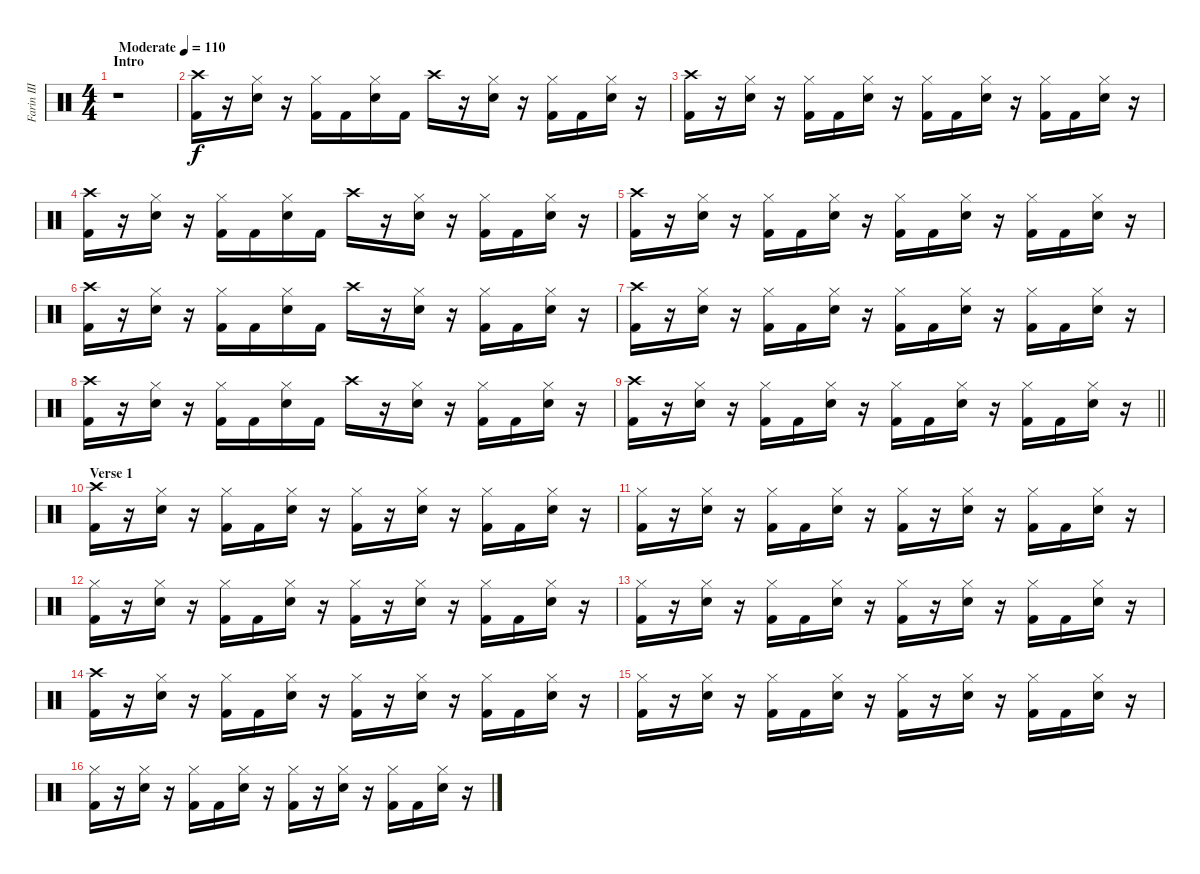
\track ("Farin III" "Farin III") {instrument percussion}
\staff {score}
\articulation defaults
\ts (4 4)
\section ("" "Intro")
\tempo (110 "Moderate")
\clef neutral
\ks c
r.1{dy f} |
("Crash high (hit)" "Kick (hit) 2").16 r.16 ("Hi-Hat (closed)" "Snare (hit) 2").16 r.16 ("Hi-Hat (closed)" "Kick (hit) 2").16 "Kick (hit) 2".16 ("Hi-Hat (closed)" "Snare (hit) 2").16 "Kick (hit) 2".16 "Crash high (hit)".16 r.16 ("Hi-Hat (closed)" "Snare (hit) 2").16 r.16 ("Hi-Hat (closed)" "Kick (hit) 2").16 "Kick (hit) 2".16 ("Hi-Hat (closed)" "Snare (hit) 2").16 r.16 |
("Crash high (hit)" "Kick (hit) 2").16 r.16 ("Hi-Hat (closed)" "Snare (hit) 2").16 r.16 ("Hi-Hat (closed)" "Kick (hit) 2").16 "Kick (hit) 2".16 ("Hi-Hat (closed)" "Snare (hit) 2").16 r.16 ("Hi-Hat (closed)" "Kick (hit) 2").16 "Kick (hit) 2".16 ("Hi-Hat (closed)" "Snare (hit) 2").16 r.16 ("Hi-Hat (closed)" "Kick (hit) 2").16 "Kick (hit) 2".16 ("Hi-Hat (closed)" "Snare (hit) 2").16 r.16 |
("Crash high (hit)" "Kick (hit) 2").16 r.16 ("Hi-Hat (closed)" "Snare (hit) 2").16 r.16 ("Hi-Hat (closed)" "Kick (hit) 2").16 "Kick (hit) 2".16 ("Hi-Hat (closed)" "Snare (hit) 2").16 "Kick (hit) 2".16 "Crash high (hit)".16 r.16 ("Hi-Hat (closed)" "Snare (hit) 2").16 r.16 ("Hi-Hat (closed)" "Kick (hit) 2").16 "Kick (hit) 2".16 ("Hi-Hat (closed)" "Snare (hit) 2").16 r.16 |
("Crash high (hit)" "Kick (hit) 2").16 r.16 ("Hi-Hat (closed)" "Snare (hit) 2").16 r.16 ("Hi-Hat (closed)" "Kick (hit) 2").16 "Kick (hit) 2".16 ("Hi-Hat (closed)" "Snare (hit) 2").16 r.16 ("Hi-Hat (closed)" "Kick (hit) 2").16 "Kick (hit) 2".16 ("Hi-Hat (closed)" "Snare (hit) 2").16 r.16 ("Hi-Hat (closed)" "Kick (hit) 2").16 "Kick (hit) 2".16 ("Hi-Hat (closed)" "Snare (hit) 2").16 r.16 |
("Crash high (hit)" "Kick (hit) 2").16 r.16 ("Hi-Hat (closed)" "Snare (hit) 2").16 r.16 ("Hi-Hat (closed)" "Kick (hit) 2").16 "Kick (hit) 2".16 ("Hi-Hat (closed)" "Snare (hit) 2").16 "Kick (hit) 2".16 "Crash high (hit)".16 r.16 ("Hi-Hat (closed)" "Snare (hit) 2").16 r.16 ("Hi-Hat (closed)" "Kick (hit) 2").16 "Kick (hit) 2".16 ("Hi-Hat (closed)" "Snare (hit) 2").16 r.16 |
("Crash high (hit)" "Kick (hit) 2").16 r.16 ("Hi-Hat (closed)" "Snare (hit) 2").16 r.16 ("Hi-Hat (closed)" "Kick (hit) 2").16 "Kick (hit) 2".16 ("Hi-Hat (closed)" "Snare (hit) 2").16 r.16 ("Hi-Hat (closed)" "Kick (hit) 2").16 "Kick (hit) 2".16 ("Hi-Hat (closed)" "Snare (hit) 2").16 r.16 ("Hi-Hat (closed)" "Kick (hit) 2").16 "Kick (hit) 2".16 ("Hi-Hat (closed)" "Snare (hit) 2").16 r.16 |
("Crash high (hit)" "Kick (hit) 2").16 r.16 ("Hi-Hat (closed)" "Snare (hit) 2").16 r.16 ("Hi-Hat (closed)" "Kick (hit) 2").16 "Kick (hit) 2".16 ("Hi-Hat (closed)" "Snare (hit) 2").16 "Kick (hit) 2".16 "Crash high (hit)".16 r.16 ("Hi-Hat (closed)" "Snare (hit) 2").16 r.16 ("Hi-Hat (closed)" "Kick (hit) 2").16 "Kick (hit) 2".16 ("Hi-Hat (closed)" "Snare (hit) 2").16 r.16 |
\barLineRight lightlight
("Crash high (hit)" "Kick (hit) 2").16 r.16 ("Hi-Hat (closed)" "Snare (hit) 2").16 r.16 ("Hi-Hat (closed)" "Kick (hit) 2").16 "Kick (hit) 2".16 ("Hi-Hat (closed)" "Snare (hit) 2").16 r.16 ("Hi-Hat (closed)" "Kick (hit) 2").16 "Kick (hit) 2".16 ("Hi-Hat (closed)" "Snare (hit) 2").16 r.16 ("Hi-Hat (closed)" "Kick (hit) 2").16 "Kick (hit) 2".16 ("Hi-Hat (closed)" "Snare (hit) 2").16 r.16 |
\section ("" "Verse 1")
("Crash high (hit)" "Kick (hit) 2").16 r.16 ("Hi-Hat (closed)" "Snare (hit) 2").16 r.16 ("Hi-Hat (closed)" "Kick (hit) 2").16 "Kick (hit) 2".16 ("Hi-Hat (closed)" "Snare (hit) 2").16 r.16 ("Hi-Hat (closed)" "Kick (hit) 2").16 r.16 ("Hi-Hat (closed)" "Snare (hit) 2").16 r.16 ("Hi-Hat (closed)" "Kick (hit) 2").16 "Kick (hit) 2".16 ("Hi-Hat (closed)" "Snare (hit) 2").16 r.16 |
("Hi-Hat (closed)" "Kick (hit) 2").16 r.16 ("Hi-Hat (closed)" "Snare (hit) 2").16 r.16 ("Hi-Hat (closed)" "Kick (hit) 2").16 "Kick (hit) 2".16 ("Hi-Hat (closed)" "Snare (hit) 2").16 r.16 ("Hi-Hat (closed)" "Kick (hit) 2").16 r.16 ("Hi-Hat (closed)" "Snare (hit) 2").16 r.16 ("Hi-Hat (closed)" "Kick (hit) 2").16 "Kick (hit) 2".16 ("Hi-Hat (closed)" "Snare (hit) 2").16 r.16 |
("Hi-Hat (closed)" "Kick (hit) 2").16 r.16 ("Hi-Hat (closed)" "Snare (hit) 2").16 r.16 ("Hi-Hat (closed)" "Kick (hit) 2").16 "Kick (hit) 2".16 ("Hi-Hat (closed)" "Snare (hit) 2").16 r.16 ("Hi-Hat (closed)" "Kick (hit) 2").16 r.16 ("Hi-Hat (closed)" "Snare (hit) 2").16 r.16 ("Hi-Hat (closed)" "Kick (hit) 2").16 "Kick (hit) 2".16 ("Hi-Hat (closed)" "Snare (hit) 2").16 r.16 |
("Hi-Hat (closed)" "Kick (hit) 2").16 r.16 ("Hi-Hat (closed)" "Snare (hit) 2").16 r.16 ("Hi-Hat (closed)" "Kick (hit) 2").16 "Kick (hit) 2".16 ("Hi-Hat (closed)" "Snare (hit) 2").16 r.16 ("Hi-Hat (closed)" "Kick (hit) 2").16 r.16 ("Hi-Hat (closed)" "Snare (hit) 2").16 r.16 ("Hi-Hat (closed)" "Kick (hit) 2").16 "Kick (hit) 2".16 ("Hi-Hat (closed)" "Snare (hit) 2").16 r.16 |
("Crash high (hit)" "Kick (hit) 2").16 r.16 ("Hi-Hat (closed)" "Snare (hit) 2").16 r.16 ("Hi-Hat (closed)" "Kick (hit) 2").16 "Kick (hit) 2".16 ("Hi-Hat (closed)" "Snare (hit) 2").16 r.16 ("Hi-Hat (closed)" "Kick (hit) 2").16 r.16 ("Hi-Hat (closed)" "Snare (hit) 2").16 r.16 ("Hi-Hat (closed)" "Kick (hit) 2").16 "Kick (hit) 2".16 ("Hi-Hat (closed)" "Snare (hit) 2").16 r.16 |
("Hi-Hat (closed)" "Kick (hit) 2").16 r.16 ("Hi-Hat (closed)" "Snare (hit) 2").16 r.16 ("Hi-Hat (closed)" "Kick (hit) 2").16 "Kick (hit) 2".16 ("Hi-Hat (closed)" "Snare (hit) 2").16 r.16 ("Hi-Hat (closed)" "Kick (hit) 2").16 r.16 ("Hi-Hat (closed)" "Snare (hit) 2").16 r.16 ("Hi-Hat (closed)" "Kick (hit) 2").16 "Kick (hit) 2".16 ("Hi-Hat (closed)" "Snare (hit) 2").16 r.16 |
("Hi-Hat (closed)" "Kick (hit) 2").16 r.16 ("Hi-Hat (closed)" "Snare (hit) 2").16 r.16 ("Hi-Hat (closed)" "Kick (hit) 2").16 "Kick (hit) 2".16 ("Hi-Hat (closed)" "Snare (hit) 2").16 r.16 ("Hi-Hat (closed)" "Kick (hit) 2").16 r.16 ("Hi-Hat (closed)" "Snare (hit) 2").16 r.16 ("Hi-Hat (closed)" "Kick (hit) 2").16 "Kick (hit) 2".16 ("Hi-Hat (closed)" "Snare (hit) 2").16 r.16
